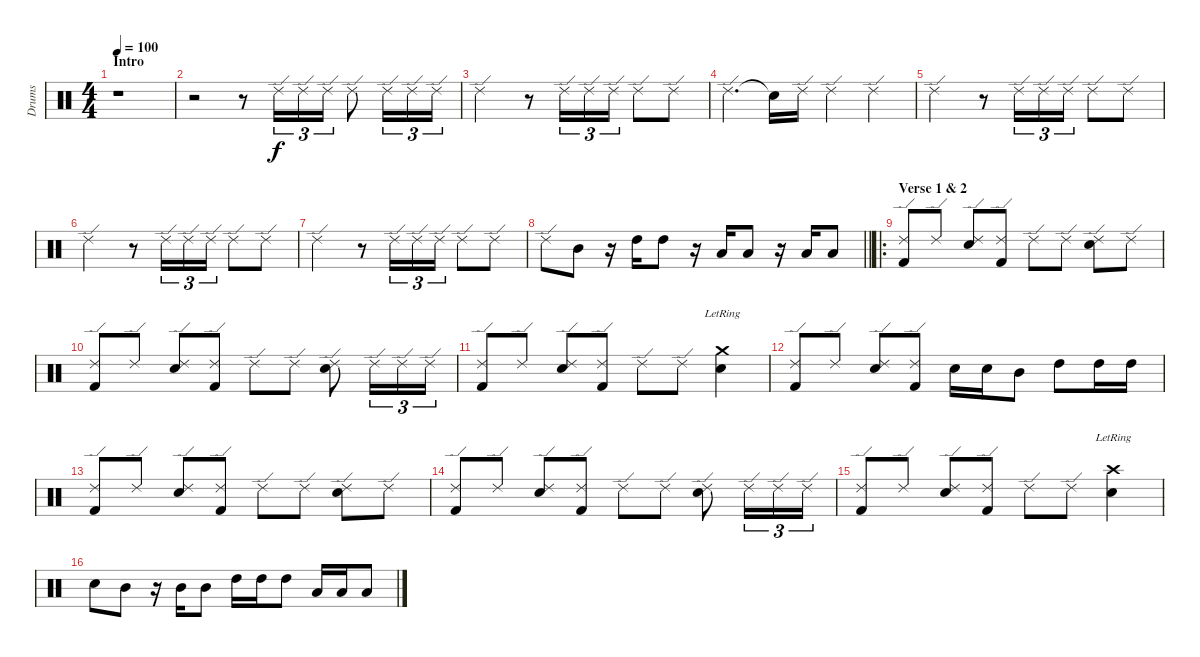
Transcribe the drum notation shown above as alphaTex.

\track ("Drums" "Drums") {instrument percussion}
\staff {score}
\articulation defaults
\ts (4 4)
\section ("" "Intro")
\tempo 100
\clef neutral
\ks c
r.1{dy f} |
r.2 r.8 "Ride (edge) 2".16{tu (3 2)} "Ride (edge) 2".16{tu (3 2)} "Ride (edge) 2".16{tu (3 2)} "Ride (edge) 2".8 "Ride (edge) 2".16{tu (3 2)} "Ride (edge) 2".16{tu (3 2)} "Ride (edge) 2".16{tu (3 2)} |
"Ride (edge) 2".2 r.8 "Ride (edge) 2".16{tu (3 2)} "Ride (edge) 2".16{tu (3 2)} "Ride (edge) 2".16{tu (3 2)} "Ride (edge) 2".8 "Ride (edge) 2".8 |
"Ride (edge) 2".4{d} "Snare (hit)"{t}.16 "Ride (edge) 2".16 "Ride (edge) 2".4 "Ride (edge) 2".4 |
"Ride (edge) 2".2 r.8 "Ride (edge) 2".16{tu (3 2)} "Ride (edge) 2".16{tu (3 2)} "Ride (edge) 2".16{tu (3 2)} "Ride (edge) 2".8 "Ride (edge) 2".8 |
"Ride (edge) 2".2 r.8 "Ride (edge) 2".16{tu (3 2)} "Ride (edge) 2".16{tu (3 2)} "Ride (edge) 2".16{tu (3 2)} "Ride (edge) 2".8 "Ride (edge) 2".8 |
"Ride (edge) 2".2 r.8 "Ride (edge) 2".16{tu (3 2)} "Ride (edge) 2".16{tu (3 2)} "Ride (edge) 2".16{tu (3 2)} "Ride (edge) 2".8 "Ride (edge) 2".8 |
\barLineRight lightlight "Ride (edge) 2".8 "Mid Tom (hit)".8
r.16 "High Tom (hit)".16 "High Tom (hit)".8 r.16 "Low Tom (hit)".16 "Low Tom (hit)".8 r.16 "Low Tom (hit)".16 "Low Tom (hit)".8 |
\ro
\section ("" "Verse 1 & 2")
("Ride (edge) 2" "Kick (hit) 2").8 "Ride (edge) 2".8 ("Ride (edge) 2" "Snare (hit) 2").8 ("Ride (edge) 2" "Kick (hit) 2").8 "Ride (edge) 2".8 "Ride (edge) 2".8 ("Ride (edge) 2" "Snare (hit) 2").8 "Ride (edge) 2".8 |
("Ride (edge) 2" "Kick (hit) 2").8 "Ride (edge) 2".8 ("Ride (edge) 2" "Snare (hit) 2").8 ("Ride (edge) 2" "Kick (hit) 2").8 "Ride (edge) 2".8 "Ride (edge) 2".8 ("Ride (edge) 2" "Snare (hit) 2").8 "Ride (edge) 2".16{tu (3 2)} "Ride (edge) 2".16{tu (3 2)} "Ride (edge) 2".16{tu (3 2)} |
("Ride (edge) 2" "Kick (hit) 2").8 "Ride (edge) 2".8 ("Ride (edge) 2" "Snare (hit) 2").8 ("Ride (edge) 2" "Kick (hit) 2").8 "Ride (edge) 2".8 "Ride (edge) 2".8 ("Crash medium (hit)"{lr} "Snare (hit) 2").4 |
("Ride (edge) 2" "Kick (hit) 2").8 "Ride (edge) 2".8 ("Ride (edge) 2" "Snare (hit) 2").8 ("Ride (edge) 2" "Kick (hit) 2").8 "Snare (hit) 2".16 "Snare (hit) 2".16 "Mid Tom (hit)".8 "High Tom (hit)".8 "High Tom (hit)".16 "High Tom (hit)".16 |
("Ride (edge) 2" "Kick (hit) 2").8 "Ride (edge) 2".8 ("Ride (edge) 2" "Snare (hit) 2").8 ("Ride (edge) 2" "Kick (hit) 2").8 "Ride (edge) 2".8 "Ride (edge) 2".8 ("Ride (edge) 2" "Snare (hit) 2").8 "Ride (edge) 2".8 |
("Ride (edge) 2" "Kick (hit) 2").8 "Ride (edge) 2".8 ("Ride (edge) 2" "Snare (hit) 2").8 ("Ride (edge) 2" "Kick (hit) 2").8 "Ride (edge) 2".8 "Ride (edge) 2".8 ("Ride (edge) 2" "Snare (hit) 2").8 "Ride (edge) 2".16{tu (3 2)} "Ride (edge) 2".16{tu (3 2)} "Ride (edge) 2".16{tu (3 2)} |
("Ride (edge) 2" "Kick (hit) 2").8 "Ride (edge) 2".8 ("Ride (edge) 2" "Snare (hit) 2").8 ("Ride (edge) 2" "Kick (hit) 2").8 "Ride (edge) 2".8 "Ride (edge) 2".8 ("Crash high (hit)"{lr} "Snare (hit) 2").4 |
"Snare (hit) 2".8 "Mid Tom (hit)".8 r.16 "Mid Tom (hit)".16 "Mid Tom (hit)".8 "High Tom (hit)".16 "High Tom (hit)".16 "High Tom (hit)".8 "Low Tom (hit)".16 "Low Tom (hit)".16 "Low Tom (hit)".8
